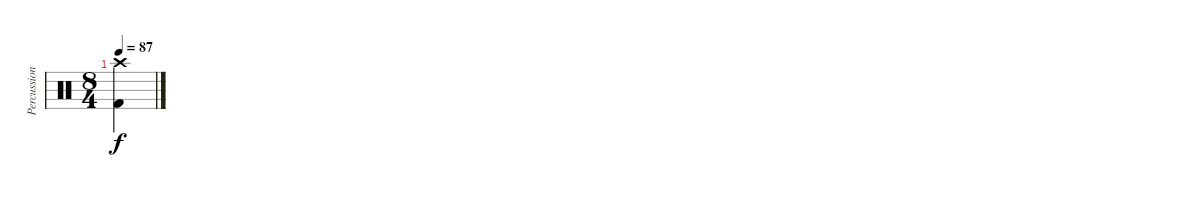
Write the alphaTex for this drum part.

\track ("Percussion" "Percussion") {instrument percussion}
\staff {score}
\articulation defaults
\ts (8 4)
\tempo 87
\clef neutral
\ks c
("Crash high (hit)" "Kick (hit) 2").4{dy f}
